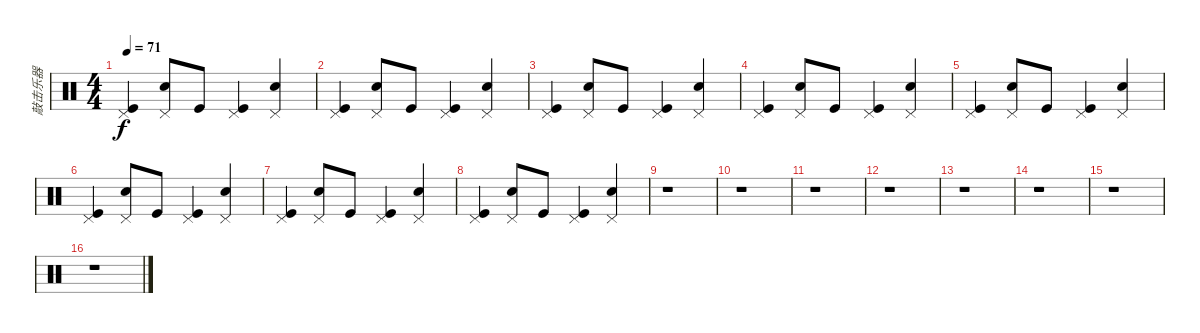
\track ("敲击乐器" "敲击乐器") {instrument percussion}
\staff {score}
\articulation defaults
\ts (4 4)
\tempo 71
\clef neutral
\ks c
("Pedal Hi-Hat (hit)" "Kick (hit)").4{dy f} ("Pedal Hi-Hat (hit)" "Snare (hit) 2").8 "Kick (hit)".8 ("Pedal Hi-Hat (hit)" "Kick (hit)").4 ("Pedal Hi-Hat (hit)" "Snare (hit) 2").4 |
("Pedal Hi-Hat (hit)" "Kick (hit)").4 ("Pedal Hi-Hat (hit)" "Snare (hit) 2").8 "Kick (hit)".8 ("Pedal Hi-Hat (hit)" "Kick (hit)").4 ("Pedal Hi-Hat (hit)" "Snare (hit) 2").4 |
("Pedal Hi-Hat (hit)" "Kick (hit)").4 ("Pedal Hi-Hat (hit)" "Snare (hit) 2").8 "Kick (hit)".8 ("Pedal Hi-Hat (hit)" "Kick (hit)").4 ("Pedal Hi-Hat (hit)" "Snare (hit) 2").4 |
("Pedal Hi-Hat (hit)" "Kick (hit)").4 ("Pedal Hi-Hat (hit)" "Snare (hit) 2").8 "Kick (hit)".8 ("Pedal Hi-Hat (hit)" "Kick (hit)").4 ("Pedal Hi-Hat (hit)" "Snare (hit) 2").4 |
("Pedal Hi-Hat (hit)" "Kick (hit)").4 ("Pedal Hi-Hat (hit)" "Snare (hit) 2").8 "Kick (hit)".8 ("Pedal Hi-Hat (hit)" "Kick (hit)").4 ("Pedal Hi-Hat (hit)" "Snare (hit) 2").4 |
("Pedal Hi-Hat (hit)" "Kick (hit)").4 ("Pedal Hi-Hat (hit)" "Snare (hit) 2").8 "Kick (hit)".8 ("Pedal Hi-Hat (hit)" "Kick (hit)").4 ("Pedal Hi-Hat (hit)" "Snare (hit) 2").4 |
("Pedal Hi-Hat (hit)" "Kick (hit)").4 ("Pedal Hi-Hat (hit)" "Snare (hit) 2").8 "Kick (hit)".8 ("Pedal Hi-Hat (hit)" "Kick (hit)").4 ("Pedal Hi-Hat (hit)" "Snare (hit) 2").4 |
("Pedal Hi-Hat (hit)" "Kick (hit)").4 ("Pedal Hi-Hat (hit)" "Snare (hit) 2").8 "Kick (hit)".8 ("Pedal Hi-Hat (hit)" "Kick (hit)").4 ("Pedal Hi-Hat (hit)" "Snare (hit) 2").4 |
r.1 |
r.1 |
r.1 |
r.1 |
r.1 |
r.1 |
r.1 |
r.1
